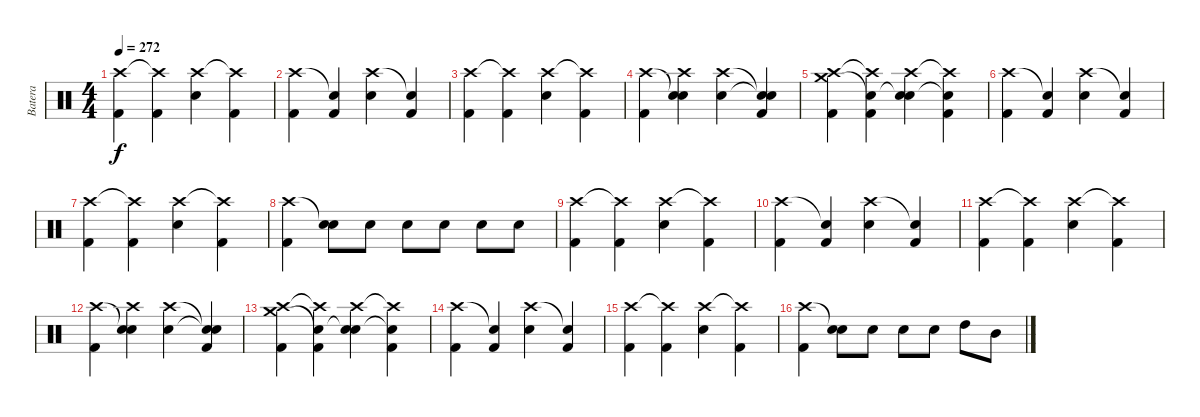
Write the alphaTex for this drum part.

\track ("Batera" "Batera") {instrument percussion}
\staff {score}
\articulation defaults
\ts (4 4)
\tempo 272
\clef neutral
\ks c
("Crash high (hit)" "Kick (hit) 2").4{dy f} ("Crash high (hit)"{t} "Kick (hit) 2").4 ("Crash high (hit)" "Electric Snare (hit)").4 ("Crash high (hit)"{t} "Kick (hit) 2").4 |
("Crash high (hit)" "Kick (hit) 2").4 ("Snare (hit)"{t} "Kick (hit) 2").4 ("Crash high (hit)" "Electric Snare (hit)").4 ("Snare (hit)"{t} "Kick (hit) 2").4 |
("Crash high (hit)" "Kick (hit) 2").4 ("Crash high (hit)"{t} "Kick (hit) 2").4 ("Crash high (hit)" "Electric Snare (hit)").4 ("Crash high (hit)"{t} "Kick (hit) 2").4 |
("Crash high (hit)" "Kick (hit) 2").4 ("Snare (hit)"{t} "Crash high (hit)" "Electric Snare (hit)").4 ("Crash high (hit)" "Electric Snare (hit)").4 ("Snare (hit)"{t} "Snare (hit)"{t} "Kick (hit) 2").4 |
("Crash high (hit)" "Crash medium (hit)" "Kick (hit) 2").4 ("Crash high (hit)"{t} "Snare (hit)"{t} "Kick (hit) 2").4 ("Crash high (hit)" "Snare (hit)"{t} "Electric Snare (hit)").4 ("Crash high (hit)"{t} "Snare (hit)"{t} "Kick (hit) 2").4 |
("Crash high (hit)" "Kick (hit) 2").4 ("Snare (hit)"{t} "Kick (hit) 2").4 ("Crash high (hit)" "Electric Snare (hit)").4 ("Snare (hit)"{t} "Kick (hit) 2").4 |
("Crash high (hit)" "Kick (hit) 2").4 ("Crash high (hit)"{t} "Kick (hit) 2").4 ("Crash high (hit)" "Electric Snare (hit)").4 ("Crash high (hit)"{t} "Kick (hit) 2").4 |
("Crash high (hit)" "Kick (hit) 2").4 ("Snare (hit)"{t} "Electric Snare (hit)").8 "Electric Snare (hit)".8 "Electric Snare (hit)".8 "Electric Snare (hit)".8 "Electric Snare (hit)".8 "Electric Snare (hit)".8 |
("Crash high (hit)" "Kick (hit) 2").4 ("Crash high (hit)"{t} "Kick (hit) 2").4 ("Crash high (hit)" "Electric Snare (hit)").4 ("Crash high (hit)"{t} "Kick (hit) 2").4 |
("Crash high (hit)" "Kick (hit) 2").4 ("Snare (hit)"{t} "Kick (hit) 2").4 ("Crash high (hit)" "Electric Snare (hit)").4 ("Snare (hit)"{t} "Kick (hit) 2").4 |
("Crash high (hit)" "Kick (hit) 2").4 ("Crash high (hit)"{t} "Kick (hit) 2").4 ("Crash high (hit)" "Electric Snare (hit)").4 ("Crash high (hit)"{t} "Kick (hit) 2").4 |
("Crash high (hit)" "Kick (hit) 2").4 ("Snare (hit)"{t} "Crash high (hit)" "Electric Snare (hit)").4 ("Crash high (hit)" "Electric Snare (hit)").4 ("Snare (hit)"{t} "Snare (hit)"{t} "Kick (hit) 2").4 |
("Crash high (hit)" "Crash medium (hit)" "Kick (hit) 2").4 ("Crash high (hit)"{t} "Snare (hit)"{t} "Kick (hit) 2").4 ("Crash high (hit)" "Snare (hit)"{t} "Electric Snare (hit)").4 ("Crash high (hit)"{t} "Snare (hit)"{t} "Kick (hit) 2").4 |
("Crash high (hit)" "Kick (hit) 2").4 ("Snare (hit)"{t} "Kick (hit) 2").4 ("Crash high (hit)" "Electric Snare (hit)").4 ("Snare (hit)"{t} "Kick (hit) 2").4 |
("Crash high (hit)" "Kick (hit) 2").4 ("Crash high (hit)"{t} "Kick (hit) 2").4 ("Crash high (hit)" "Electric Snare (hit)").4 ("Crash high (hit)"{t} "Kick (hit) 2").4 |
("Crash high (hit)" "Kick (hit) 2").4 ("Snare (hit)"{t} "Electric Snare (hit)").8 "Electric Snare (hit)".8 "Electric Snare (hit)".8 "Electric Snare (hit)".8 "High Tom (hit)".8 "Mid Tom (hit)".8
